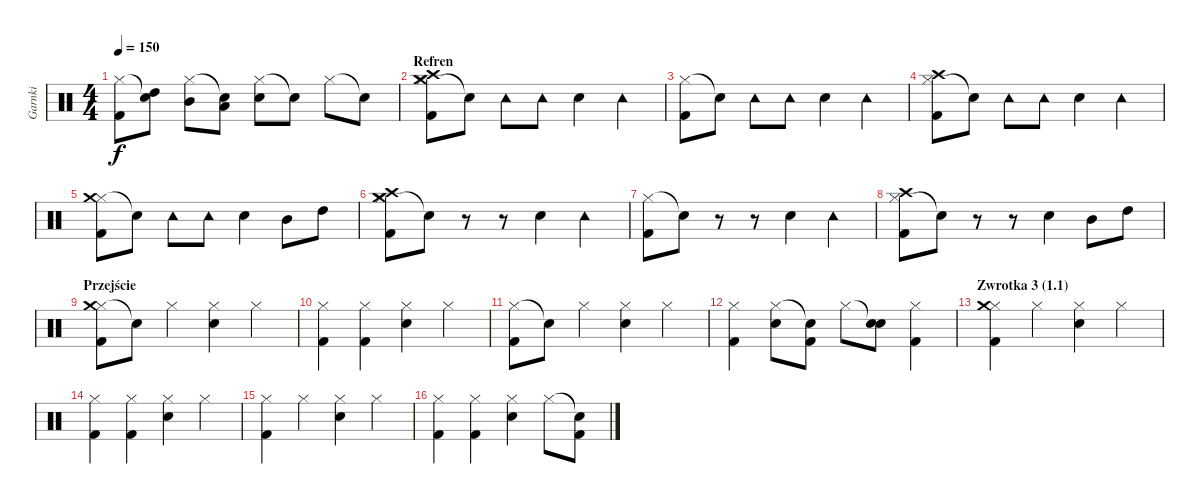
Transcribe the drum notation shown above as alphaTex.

\track ("Garnki" "Garnki") {instrument percussion}
\staff {score}
\articulation defaults
\ts (4 4)
\tempo 150
\clef neutral
\ks c
("Hi-Hat (closed)" "Kick (hit) 2").8{dy f} ("Snare (hit)"{t} "High Tom (hit)").8 ("Hi-Hat (closed)" "Mid Tom (hit)").8 ("Snare (hit)"{t} "Low Tom (hit)").8 ("Hi-Hat (closed)" "Snare (hit) 2").8 "Snare (hit)"{t}.8 "Hi-Hat (closed)".8 "Snare (hit)"{t}.8 |
\section ("" "Refren")
("Hi-Hat (closed)" "Crash medium (hit)" "Kick (hit) 2" "Crash high (hit)").8 "Snare (hit)"{t}.8 "Tambourine (hit)".8 "Tambourine (hit)".8 "Snare (hit) 2".4 "Tambourine (hit)".4 |
("Hi-Hat (closed)" "Kick (hit) 2").8 "Snare (hit)"{t}.8 "Tambourine (hit)".8 "Tambourine (hit)".8 "Snare (hit) 2".4 "Tambourine (hit)".4 |
("Hi-Hat (closed)" "Crash high (hit)" "Kick (hit) 2").8 "Snare (hit)"{t}.8 "Tambourine (hit)".8 "Tambourine (hit)".8 "Snare (hit) 2".4 "Tambourine (hit)".4 |
("Hi-Hat (closed)" "Crash medium (hit)" "Kick (hit) 2").8 "Snare (hit)"{t}.8 "Tambourine (hit)".8 "Tambourine (hit)".8 "Snare (hit) 2".4 "Mid Tom (hit)".8 "High Tom (hit)".8 |
("Hi-Hat (closed)" "Crash medium (hit)" "Kick (hit) 2" "Crash high (hit)").8 "Snare (hit)"{t}.8 r.8 r.8 "Snare (hit) 2".4 "Tambourine (hit)".4 |
("Hi-Hat (closed)" "Kick (hit) 2").8 "Snare (hit)"{t}.8 r.8 r.8 "Snare (hit) 2".4 "Tambourine (hit)".4 |
("Hi-Hat (closed)" "Crash high (hit)" "Kick (hit) 2").8 "Snare (hit)"{t}.8 r.8 r.8 "Snare (hit) 2".4 "Mid Tom (hit)".8 "High Tom (hit)".8 |
\section ("" "Przejście")
("Hi-Hat (closed)" "Crash medium (hit)" "Kick (hit) 2").8 "Snare (hit)"{t}.8 "Hi-Hat (closed)".4 ("Hi-Hat (closed)" "Snare (hit) 2").4 "Hi-Hat (closed)".4 |
("Hi-Hat (closed)" "Kick (hit) 2").4 ("Hi-Hat (closed)" "Kick (hit) 2").4 ("Hi-Hat (closed)" "Snare (hit) 2").4 "Hi-Hat (closed)".4 |
("Hi-Hat (closed)" "Kick (hit) 2").8 "Snare (hit)"{t}.8 "Hi-Hat (closed)".4 ("Hi-Hat (closed)" "Snare (hit) 2").4 "Hi-Hat (closed)".4 |
("Hi-Hat (closed)" "Kick (hit) 2").4 ("Hi-Hat (closed)" "Snare (hit) 2").8 ("Snare (hit)"{t} "Kick (hit) 2").8 "Hi-Hat (closed)".8 ("Snare (hit)"{t} "Snare (hit) 2").8 ("Hi-Hat (closed)" "Kick (hit) 2").4 |
\section ("" "Zwrotka 3 (1.1)")
("Hi-Hat (closed)" "Crash medium (hit)" "Kick (hit) 2").4 "Hi-Hat (closed)".4 ("Hi-Hat (closed)" "Snare (hit) 2").4 "Hi-Hat (closed)".4 |
("Hi-Hat (closed)" "Kick (hit) 2").4 ("Hi-Hat (closed)" "Kick (hit) 2").4 ("Hi-Hat (closed)" "Snare (hit) 2").4 "Hi-Hat (closed)".4 |
("Hi-Hat (closed)" "Kick (hit) 2").4 "Hi-Hat (closed)".4 ("Hi-Hat (closed)" "Snare (hit) 2").4 "Hi-Hat (closed)".4 |
("Hi-Hat (closed)" "Kick (hit) 2").4 ("Hi-Hat (closed)" "Kick (hit) 2").4 ("Hi-Hat (closed)" "Snare (hit) 2").4 "Hi-Hat (closed)".8 ("Snare (hit)"{t} "Kick (hit) 2").8
